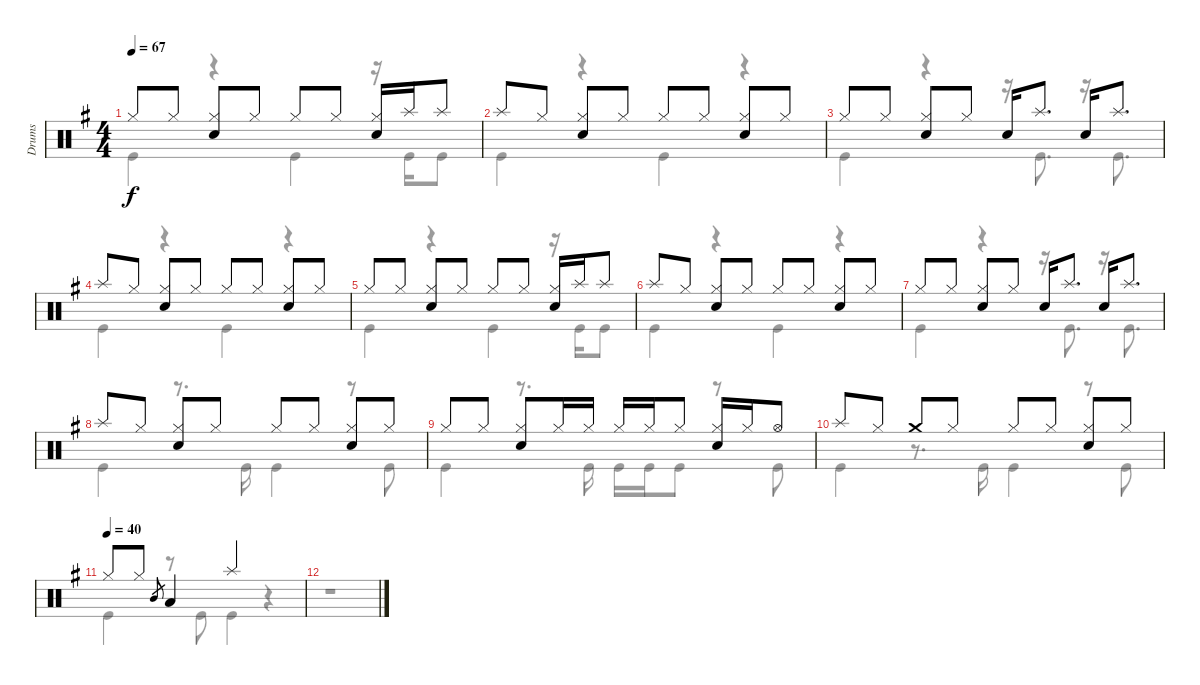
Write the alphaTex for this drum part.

\track ("Drums" "Drums") {instrument percussion}
\staff {score}
\articulation defaults
\voice
\ts (4 4)
\tempo 67
\clef neutral
\ks eminor "Hi-Hat (closed)".8{dy f} "Hi-Hat (closed)".8
("Hi-Hat (closed)" "Snare (hit) 2").8 "Hi-Hat (closed)".8 "Hi-Hat (closed)".8 "Hi-Hat (closed)".8 ("Hi-Hat (closed)" "Snare (hit) 2").16 "Splash (hit)".16 "Splash (hit)".8 |
"Splash (hit)".8 "Hi-Hat (closed)".8 ("Hi-Hat (closed)" "Snare (hit) 2").8 "Hi-Hat (closed)".8 "Hi-Hat (closed)".8 "Hi-Hat (closed)".8 ("Hi-Hat (closed)" "Snare (hit) 2").8 "Hi-Hat (closed)".8 |
"Hi-Hat (closed)".8 "Hi-Hat (closed)".8 ("Hi-Hat (closed)" "Snare (hit) 2").8 "Hi-Hat (closed)".8 "Snare (hit) 2".16 "Splash (hit)".8{d} "Snare (hit) 2".16 "Splash (hit)".8{d} |
"Splash (hit)".8 "Hi-Hat (closed)".8 ("Hi-Hat (closed)" "Snare (hit) 2").8 "Hi-Hat (closed)".8 "Hi-Hat (closed)".8 "Hi-Hat (closed)".8 ("Hi-Hat (closed)" "Snare (hit) 2").8 "Hi-Hat (closed)".8 |
"Hi-Hat (closed)".8 "Hi-Hat (closed)".8 ("Hi-Hat (closed)" "Snare (hit) 2").8 "Hi-Hat (closed)".8 "Hi-Hat (closed)".8 "Hi-Hat (closed)".8 ("Hi-Hat (closed)" "Snare (hit) 2").16 "Splash (hit)".16 "Splash (hit)".8 |
"Splash (hit)".8 "Hi-Hat (closed)".8 ("Hi-Hat (closed)" "Snare (hit) 2").8 "Hi-Hat (closed)".8 "Hi-Hat (closed)".8 "Hi-Hat (closed)".8 ("Hi-Hat (closed)" "Snare (hit) 2").8 "Hi-Hat (closed)".8 |
"Hi-Hat (closed)".8 "Hi-Hat (closed)".8 ("Hi-Hat (closed)" "Snare (hit) 2").8 "Hi-Hat (closed)".8 "Snare (hit) 2".16 "Splash (hit)".8{d} "Snare (hit) 2".16 "Splash (hit)".8{d} |
"Splash (hit)".8 "Hi-Hat (closed)".8 ("Hi-Hat (closed)" "Snare (hit) 2").8 "Hi-Hat (closed)".8 "Hi-Hat (closed)".8 "Hi-Hat (closed)".8 ("Hi-Hat (closed)" "Snare (hit) 2").8 "Hi-Hat (closed)".8 |
"Hi-Hat (closed)".8 "Hi-Hat (closed)".8 ("Hi-Hat (closed)" "Snare (hit) 2").8 "Hi-Hat (closed)".16 "Hi-Hat (closed)".16 "Hi-Hat (closed)".16 "Hi-Hat (closed)".16 "Hi-Hat (closed)".8 ("Hi-Hat (closed)" "Snare (hit) 2").16 "Hi-Hat (closed)".16 "Hi-Hat (open)".8 |
"Splash (hit)".8 "Hi-Hat (closed)".8 "Crash medium (hit)".8 "Hi-Hat (closed)".8 "Hi-Hat (closed)".8 "Hi-Hat (closed)".8 ("Hi-Hat (closed)" "Snare (hit) 2").8 "Hi-Hat (closed)".8 |
\tempo (40)
"Hi-Hat (closed)".8 "Hi-Hat (closed)".8 "Mid Tom (hit)".8{gr} "Low Tom (hit)".4 "Splash (hit)".2 |
\voice
\clef neutral
\ottava regular
\simile none
\ks eminor "Kick (hit)".4{dy f}
r.4 "Kick (hit)".4 r.16 "Kick (hit)".16 "Kick (hit)".8 |
"Kick (hit)".4 r.4 "Kick (hit)".4 r.4 |
"Kick (hit)".4 r.4 r.16 "Kick (hit)".8{d} r.16 "Kick (hit)".8{d} |
"Kick (hit)".4 r.4 "Kick (hit)".4 r.4 |
"Kick (hit)".4 r.4 "Kick (hit)".4 r.16 "Kick (hit)".16 "Kick (hit)".8 |
"Kick (hit)".4 r.4 "Kick (hit)".4 r.4 |
"Kick (hit)".4 r.4 r.16 "Kick (hit)".8{d} r.16 "Kick (hit)".8{d} |
"Kick (hit)".4 r.8{d} "Kick (hit)".16 "Kick (hit)".4 r.8 "Kick (hit)".8 |
"Kick (hit)".4 r.8{d} "Kick (hit)".16 "Kick (hit)".16 "Kick (hit)".16 "Kick (hit)".8 r.8 "Kick (hit)".8 |
"Kick (hit)".4 r.8{d} "Kick (hit)".16 "Kick (hit)".4 r.8 "Kick (hit)".8 |
"Kick (hit)".4 r.8 "Kick (hit)".8 "Kick (hit)".4 r.4 |
r.1
